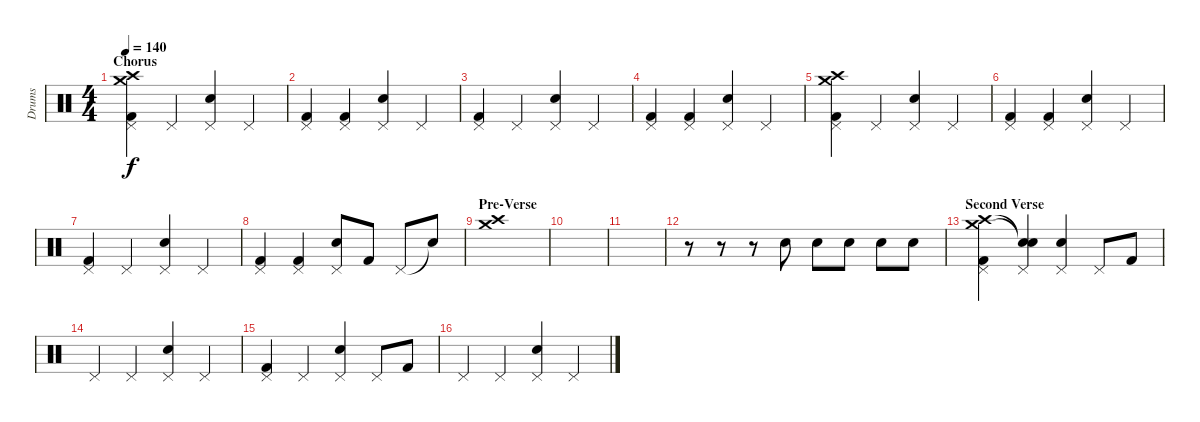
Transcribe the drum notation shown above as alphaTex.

\track ("Drums" "Drums") {instrument percussion}
\staff {score}
\articulation defaults
\ts (4 4)
\section ("" "Chorus")
\tempo 140
\clef neutral
\ks c
("Crash high (hit)" "Pedal Hi-Hat (hit)" "Crash medium (hit)" "Kick (hit) 2").4{dy f} "Pedal Hi-Hat (hit)".4 ("Pedal Hi-Hat (hit)" "Electric Snare (hit)").4 "Pedal Hi-Hat (hit)".4 |
("Pedal Hi-Hat (hit)" "Kick (hit) 2").4 ("Pedal Hi-Hat (hit)" "Kick (hit) 2").4 ("Pedal Hi-Hat (hit)" "Electric Snare (hit)").4 "Pedal Hi-Hat (hit)".4 |
("Pedal Hi-Hat (hit)" "Kick (hit) 2").4 "Pedal Hi-Hat (hit)".4 ("Pedal Hi-Hat (hit)" "Electric Snare (hit)").4 "Pedal Hi-Hat (hit)".4 |
("Pedal Hi-Hat (hit)" "Kick (hit) 2").4 ("Pedal Hi-Hat (hit)" "Kick (hit) 2").4 ("Pedal Hi-Hat (hit)" "Electric Snare (hit)").4 "Pedal Hi-Hat (hit)".4 |
("Crash high (hit)" "Pedal Hi-Hat (hit)" "Crash medium (hit)" "Kick (hit) 2").4 "Pedal Hi-Hat (hit)".4 ("Pedal Hi-Hat (hit)" "Electric Snare (hit)").4 "Pedal Hi-Hat (hit)".4 |
("Pedal Hi-Hat (hit)" "Kick (hit) 2").4 ("Pedal Hi-Hat (hit)" "Kick (hit) 2").4 ("Pedal Hi-Hat (hit)" "Electric Snare (hit)").4 "Pedal Hi-Hat (hit)".4 |
("Pedal Hi-Hat (hit)" "Kick (hit) 2").4 "Pedal Hi-Hat (hit)".4 ("Pedal Hi-Hat (hit)" "Electric Snare (hit)").4 "Pedal Hi-Hat (hit)".4 |
("Pedal Hi-Hat (hit)" "Kick (hit) 2").4 ("Pedal Hi-Hat (hit)" "Kick (hit) 2").4 ("Pedal Hi-Hat (hit)" "Electric Snare (hit)").8 "Kick (hit) 2".8 "Pedal Hi-Hat (hit)".8 "Snare (hit)"{t}.8 |
\section ("" "Pre-Verse")
("Crash medium (hit)" "Crash high (hit)").1 |
|
|
r.8 r.8 r.8 "Snare (hit) 2".8 "Snare (hit) 2".8 "Snare (hit) 2".8 "Snare (hit) 2".8 "Snare (hit) 2".8 |
\section ("" "Second Verse")
("Crash medium (hit)" "Pedal Hi-Hat (hit)" "Crash high (hit)" "Kick (hit) 2").4 ("Snare (hit)"{t} "Pedal Hi-Hat (hit)" "Electric Snare (hit)"{t}).4 ("Pedal Hi-Hat (hit)" "Electric Snare (hit)").4 "Pedal Hi-Hat (hit)".8 "Kick (hit) 2".8 |
"Pedal Hi-Hat (hit)".4 "Pedal Hi-Hat (hit)".4 ("Pedal Hi-Hat (hit)" "Electric Snare (hit)").4 "Pedal Hi-Hat (hit)".4 |
("Pedal Hi-Hat (hit)" "Kick (hit) 2").4 "Pedal Hi-Hat (hit)".4 ("Pedal Hi-Hat (hit)" "Electric Snare (hit)").4 "Pedal Hi-Hat (hit)".8 "Kick (hit) 2".8 |
"Pedal Hi-Hat (hit)".4 "Pedal Hi-Hat (hit)".4 ("Pedal Hi-Hat (hit)" "Electric Snare (hit)").4 "Pedal Hi-Hat (hit)".4
